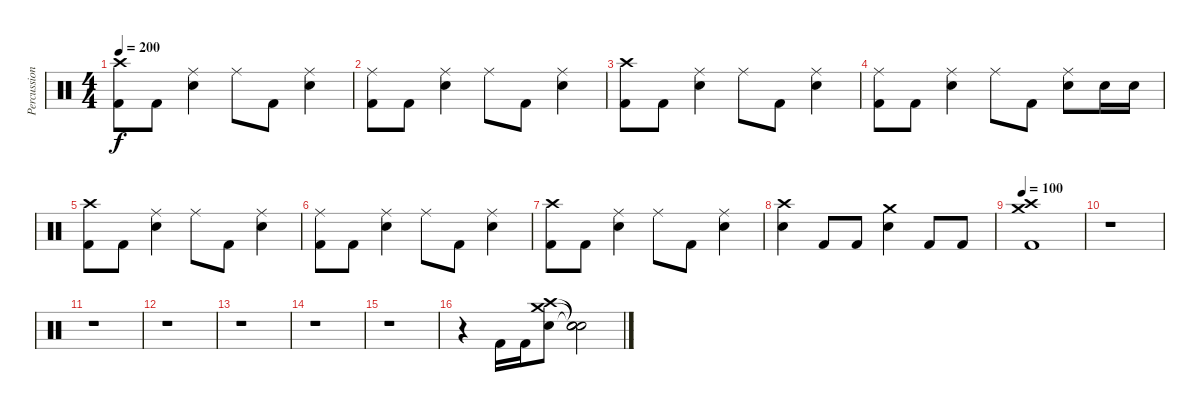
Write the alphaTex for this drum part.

\track ("Percussion" "Percussion") {instrument percussion}
\staff {score}
\articulation defaults
\ts (4 4)
\tempo 200
\clef neutral
\ks c
("Crash high (hit)" "Kick (hit) 2").8{dy f} "Kick (hit) 2".8 ("Ride (middle)" "Snare (hit) 2").4 "Ride (middle)".8 "Kick (hit) 2".8 ("Ride (middle)" "Snare (hit) 2").4 |
("Ride (middle)" "Kick (hit) 2").8 "Kick (hit) 2".8 ("Ride (middle)" "Snare (hit) 2").4 "Ride (middle)".8 "Kick (hit) 2".8 ("Ride (middle)" "Snare (hit) 2").4 |
("Crash high (hit)" "Kick (hit) 2").8 "Kick (hit) 2".8 ("Ride (middle)" "Snare (hit) 2").4 "Ride (middle)".8 "Kick (hit) 2".8 ("Ride (middle)" "Snare (hit) 2").4 |
("Ride (middle)" "Kick (hit) 2").8 "Kick (hit) 2".8 ("Ride (middle)" "Snare (hit) 2").4 "Ride (middle)".8 "Kick (hit) 2".8 ("Ride (middle)" "Snare (hit) 2").8 "Snare (hit) 2".16 "Snare (hit) 2".16 |
("Crash high (hit)" "Kick (hit) 2").8 "Kick (hit) 2".8 ("Ride (middle)" "Snare (hit) 2").4 "Ride (middle)".8 "Kick (hit) 2".8 ("Ride (middle)" "Snare (hit) 2").4 |
("Ride (middle)" "Kick (hit) 2").8 "Kick (hit) 2".8 ("Ride (middle)" "Snare (hit) 2").4 "Ride (middle)".8 "Kick (hit) 2".8 ("Ride (middle)" "Snare (hit) 2").4 |
("Crash high (hit)" "Kick (hit) 2").8 "Kick (hit) 2".8 ("Ride (middle)" "Snare (hit) 2").4 "Ride (middle)".8 "Kick (hit) 2".8 ("Ride (middle)" "Snare (hit) 2").4 |
("Crash high (hit)" "Snare (hit) 2").4 "Kick (hit) 2".8 "Kick (hit) 2".8 ("Crash medium (hit)" "Snare (hit) 2").4 "Kick (hit) 2".8 "Kick (hit) 2".8 |
\tempo 100
("Crash medium (hit)" "Crash high (hit)" "Kick (hit) 2").1 |
r.1 |
r.1 |
r.1 |
r.1 |
r.1 |
r.1 |
r.4 "Kick (hit) 2".16 "Kick (hit) 2".16 ("Crash high (hit)" "Crash medium (hit)" "Snare (hit) 2").8 ("Snare (hit)"{t} "Snare (hit)"{t} "Snare (hit)"{t}).2
